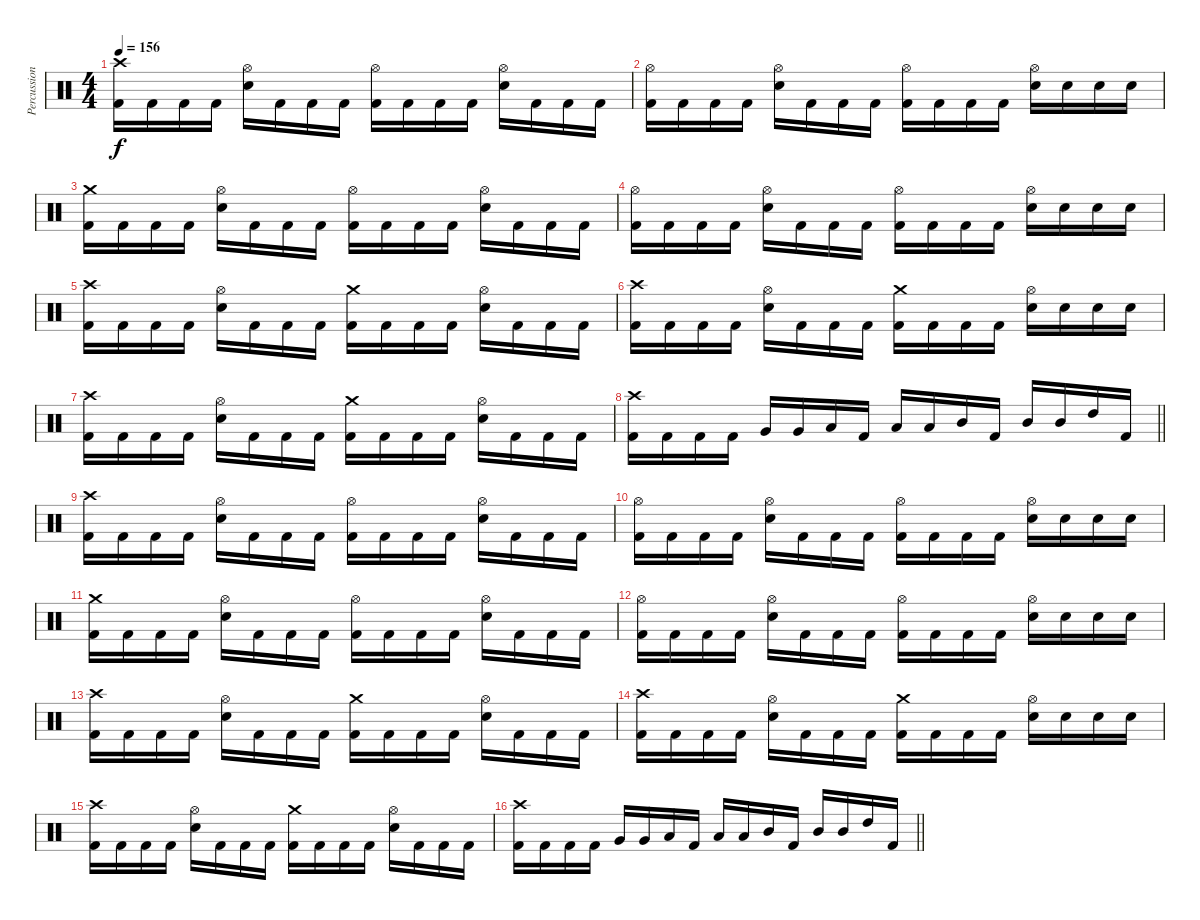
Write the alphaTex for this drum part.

\track ("Percussion" "Percussion") {instrument percussion}
\staff {score}
\articulation defaults
\ts (4 4)
\tempo 156
\clef neutral
\ks c
("Crash high (hit)" "Kick (hit) 2").16{dy f} "Kick (hit) 2".16 "Kick (hit) 2".16 "Kick (hit) 2".16 ("Hi-Hat (open)" "Snare (hit) 2").16 "Kick (hit) 2".16 "Kick (hit) 2".16 "Kick (hit) 2".16 ("Hi-Hat (open)" "Kick (hit) 2").16 "Kick (hit) 2".16 "Kick (hit) 2".16 "Kick (hit) 2".16 ("Hi-Hat (open)" "Snare (hit) 2").16 "Kick (hit) 2".16 "Kick (hit) 2".16 "Kick (hit) 2".16 |
("Hi-Hat (open)" "Kick (hit) 2").16 "Kick (hit) 2".16 "Kick (hit) 2".16 "Kick (hit) 2".16 ("Hi-Hat (open)" "Snare (hit) 2").16 "Kick (hit) 2".16 "Kick (hit) 2".16 "Kick (hit) 2".16 ("Hi-Hat (open)" "Kick (hit) 2").16 "Kick (hit) 2".16 "Kick (hit) 2".16 "Kick (hit) 2".16 ("Hi-Hat (open)" "Snare (hit) 2").16 "Snare (hit) 2".16 "Snare (hit) 2".16 "Snare (hit) 2".16 |
("Crash medium (hit)" "Kick (hit) 2").16 "Kick (hit) 2".16 "Kick (hit) 2".16 "Kick (hit) 2".16 ("Hi-Hat (open)" "Snare (hit) 2").16 "Kick (hit) 2".16 "Kick (hit) 2".16 "Kick (hit) 2".16 ("Hi-Hat (open)" "Kick (hit) 2").16 "Kick (hit) 2".16 "Kick (hit) 2".16 "Kick (hit) 2".16 ("Hi-Hat (open)" "Snare (hit) 2").16 "Kick (hit) 2".16 "Kick (hit) 2".16 "Kick (hit) 2".16 |
("Hi-Hat (open)" "Kick (hit) 2").16 "Kick (hit) 2".16 "Kick (hit) 2".16 "Kick (hit) 2".16 ("Hi-Hat (open)" "Snare (hit) 2").16 "Kick (hit) 2".16 "Kick (hit) 2".16 "Kick (hit) 2".16 ("Hi-Hat (open)" "Kick (hit) 2").16 "Kick (hit) 2".16 "Kick (hit) 2".16 "Kick (hit) 2".16 ("Hi-Hat (open)" "Snare (hit) 2").16 "Snare (hit) 2".16 "Snare (hit) 2".16 "Snare (hit) 2".16 |
("Crash high (hit)" "Kick (hit) 2").16 "Kick (hit) 2".16 "Kick (hit) 2".16 "Kick (hit) 2".16 ("Hi-Hat (open)" "Snare (hit) 2").16 "Kick (hit) 2".16 "Kick (hit) 2".16 "Kick (hit) 2".16 ("Crash medium (hit)" "Kick (hit) 2").16 "Kick (hit) 2".16 "Kick (hit) 2".16 "Kick (hit) 2".16 ("Hi-Hat (open)" "Snare (hit) 2").16 "Kick (hit) 2".16 "Kick (hit) 2".16 "Kick (hit) 2".16 |
("Crash high (hit)" "Kick (hit) 2").16 "Kick (hit) 2".16 "Kick (hit) 2".16 "Kick (hit) 2".16 ("Hi-Hat (open)" "Snare (hit) 2").16 "Kick (hit) 2".16 "Kick (hit) 2".16 "Kick (hit) 2".16 ("Crash medium (hit)" "Kick (hit) 2").16 "Kick (hit) 2".16 "Kick (hit) 2".16 "Kick (hit) 2".16 ("Hi-Hat (open)" "Snare (hit) 2").16 "Snare (hit) 2".16 "Snare (hit) 2".16 "Snare (hit) 2".16 |
("Crash high (hit)" "Kick (hit) 2").16 "Kick (hit) 2".16 "Kick (hit) 2".16 "Kick (hit) 2".16 ("Hi-Hat (open)" "Snare (hit) 2").16 "Kick (hit) 2".16 "Kick (hit) 2".16 "Kick (hit) 2".16 ("Crash medium (hit)" "Kick (hit) 2").16 "Kick (hit) 2".16 "Kick (hit) 2".16 "Kick (hit) 2".16 ("Hi-Hat (open)" "Snare (hit) 2").16 "Kick (hit) 2".16 "Kick (hit) 2".16 "Kick (hit) 2".16 |
\barLineRight lightlight
("Crash high (hit)" "Kick (hit) 2").16 "Kick (hit) 2".16 "Kick (hit) 2".16 "Kick (hit) 2".16 "Very Low Tom (hit)".16 "Very Low Tom (hit)".16 "Low Tom (hit)".16 "Kick (hit) 2".16 "Low Tom (hit)".16 "Low Tom (hit)".16 "Mid Tom (hit)".16 "Kick (hit) 2".16 "Mid Tom (hit)".16 "Mid Tom (hit)".16 "High Tom (hit)".16 "Kick (hit) 2".16 |
("Crash high (hit)" "Kick (hit) 2").16 "Kick (hit) 2".16 "Kick (hit) 2".16 "Kick (hit) 2".16 ("Hi-Hat (open)" "Snare (hit) 2").16 "Kick (hit) 2".16 "Kick (hit) 2".16 "Kick (hit) 2".16 ("Hi-Hat (open)" "Kick (hit) 2").16 "Kick (hit) 2".16 "Kick (hit) 2".16 "Kick (hit) 2".16 ("Hi-Hat (open)" "Snare (hit) 2").16 "Kick (hit) 2".16 "Kick (hit) 2".16 "Kick (hit) 2".16 |
("Hi-Hat (open)" "Kick (hit) 2").16 "Kick (hit) 2".16 "Kick (hit) 2".16 "Kick (hit) 2".16 ("Hi-Hat (open)" "Snare (hit) 2").16 "Kick (hit) 2".16 "Kick (hit) 2".16 "Kick (hit) 2".16 ("Hi-Hat (open)" "Kick (hit) 2").16 "Kick (hit) 2".16 "Kick (hit) 2".16 "Kick (hit) 2".16 ("Hi-Hat (open)" "Snare (hit) 2").16 "Snare (hit) 2".16 "Snare (hit) 2".16 "Snare (hit) 2".16 |
("Crash medium (hit)" "Kick (hit) 2").16 "Kick (hit) 2".16 "Kick (hit) 2".16 "Kick (hit) 2".16 ("Hi-Hat (open)" "Snare (hit) 2").16 "Kick (hit) 2".16 "Kick (hit) 2".16 "Kick (hit) 2".16 ("Hi-Hat (open)" "Kick (hit) 2").16 "Kick (hit) 2".16 "Kick (hit) 2".16 "Kick (hit) 2".16 ("Hi-Hat (open)" "Snare (hit) 2").16 "Kick (hit) 2".16 "Kick (hit) 2".16 "Kick (hit) 2".16 |
("Hi-Hat (open)" "Kick (hit) 2").16 "Kick (hit) 2".16 "Kick (hit) 2".16 "Kick (hit) 2".16 ("Hi-Hat (open)" "Snare (hit) 2").16 "Kick (hit) 2".16 "Kick (hit) 2".16 "Kick (hit) 2".16 ("Hi-Hat (open)" "Kick (hit) 2").16 "Kick (hit) 2".16 "Kick (hit) 2".16 "Kick (hit) 2".16 ("Hi-Hat (open)" "Snare (hit) 2").16 "Snare (hit) 2".16 "Snare (hit) 2".16 "Snare (hit) 2".16 |
("Crash high (hit)" "Kick (hit) 2").16 "Kick (hit) 2".16 "Kick (hit) 2".16 "Kick (hit) 2".16 ("Hi-Hat (open)" "Snare (hit) 2").16 "Kick (hit) 2".16 "Kick (hit) 2".16 "Kick (hit) 2".16 ("Crash medium (hit)" "Kick (hit) 2").16 "Kick (hit) 2".16 "Kick (hit) 2".16 "Kick (hit) 2".16 ("Hi-Hat (open)" "Snare (hit) 2").16 "Kick (hit) 2".16 "Kick (hit) 2".16 "Kick (hit) 2".16 |
("Crash high (hit)" "Kick (hit) 2").16 "Kick (hit) 2".16 "Kick (hit) 2".16 "Kick (hit) 2".16 ("Hi-Hat (open)" "Snare (hit) 2").16 "Kick (hit) 2".16 "Kick (hit) 2".16 "Kick (hit) 2".16 ("Crash medium (hit)" "Kick (hit) 2").16 "Kick (hit) 2".16 "Kick (hit) 2".16 "Kick (hit) 2".16 ("Hi-Hat (open)" "Snare (hit) 2").16 "Snare (hit) 2".16 "Snare (hit) 2".16 "Snare (hit) 2".16 |
("Crash high (hit)" "Kick (hit) 2").16 "Kick (hit) 2".16 "Kick (hit) 2".16 "Kick (hit) 2".16 ("Hi-Hat (open)" "Snare (hit) 2").16 "Kick (hit) 2".16 "Kick (hit) 2".16 "Kick (hit) 2".16 ("Crash medium (hit)" "Kick (hit) 2").16 "Kick (hit) 2".16 "Kick (hit) 2".16 "Kick (hit) 2".16 ("Hi-Hat (open)" "Snare (hit) 2").16 "Kick (hit) 2".16 "Kick (hit) 2".16 "Kick (hit) 2".16 |
\barLineRight lightlight
("Crash high (hit)" "Kick (hit) 2").16 "Kick (hit) 2".16 "Kick (hit) 2".16 "Kick (hit) 2".16 "Very Low Tom (hit)".16 "Very Low Tom (hit)".16 "Low Tom (hit)".16 "Kick (hit) 2".16 "Low Tom (hit)".16 "Low Tom (hit)".16 "Mid Tom (hit)".16 "Kick (hit) 2".16 "Mid Tom (hit)".16 "Mid Tom (hit)".16 "High Tom (hit)".16 "Kick (hit) 2".16
